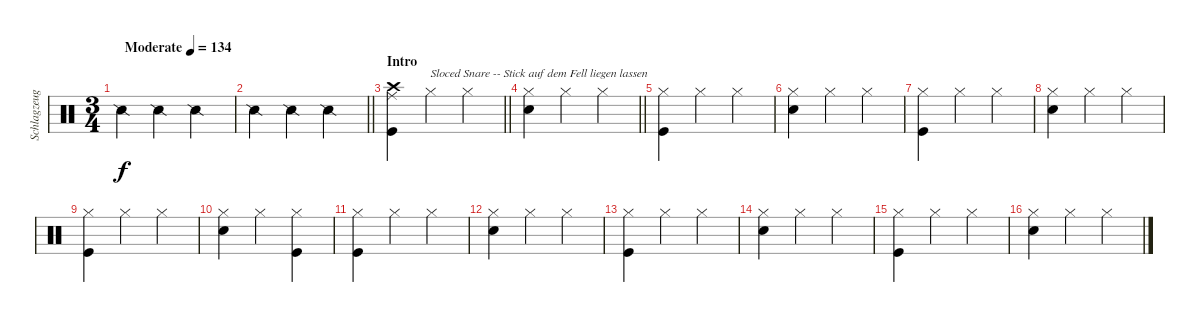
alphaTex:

\track ("Schlagzeug" "Schlagzeug") {instrument percussion}
\staff {score}
\articulation defaults
\ts (3 4)
\tempo (134 "Moderate")
\clef neutral
\ks c "Snare (side stick) 2".4{dy f} "Snare (side stick) 2".4 "Snare (side stick) 2".4
|
\barLineRight lightlight "Snare (side stick) 2".4 "Snare (side stick) 2".4 "Snare (side stick) 2".4
|
\section ("" "Intro")
\barLineRight lightlight
("Crash high (hit)" "Ride (middle)" "Kick (hit)").4 "Hi-Hat (closed)".4{txt "Sloced Snare -- Stick auf dem Fell liegen lassen"} "Hi-Hat (closed)".4 |
\section ("" "")
\barLineRight lightlight
("Hi-Hat (closed)" "Snare (hit) 2").4 "Hi-Hat (closed)".4 "Hi-Hat (closed)".4 |
\section ("" "")
("Hi-Hat (closed)" "Kick (hit)").4 "Hi-Hat (closed)".4 "Hi-Hat (closed)".4 |
("Hi-Hat (closed)" "Snare (hit) 2").4 "Hi-Hat (closed)".4 "Hi-Hat (closed)".4 |
("Hi-Hat (closed)" "Kick (hit)").4 "Hi-Hat (closed)".4 "Hi-Hat (closed)".4 |
("Hi-Hat (closed)" "Snare (hit) 2").4 "Hi-Hat (closed)".4 "Hi-Hat (closed)".4 |
("Hi-Hat (closed)" "Kick (hit)").4 "Hi-Hat (closed)".4 "Hi-Hat (closed)".4 |
("Hi-Hat (closed)" "Snare (hit) 2").4 "Hi-Hat (closed)".4 ("Hi-Hat (closed)" "Kick (hit)").4 |
("Hi-Hat (closed)" "Kick (hit)").4 "Hi-Hat (closed)".4 "Hi-Hat (closed)".4 |
("Hi-Hat (closed)" "Snare (hit) 2").4 "Hi-Hat (closed)".4 "Hi-Hat (closed)".4 |
("Hi-Hat (closed)" "Kick (hit)").4 "Hi-Hat (closed)".4 "Hi-Hat (closed)".4 |
("Hi-Hat (closed)" "Snare (hit) 2").4 "Hi-Hat (closed)".4 "Hi-Hat (closed)".4 |
("Hi-Hat (closed)" "Kick (hit)").4 "Hi-Hat (closed)".4 "Hi-Hat (closed)".4 |
("Hi-Hat (closed)" "Snare (hit) 2").4 "Hi-Hat (closed)".4 "Hi-Hat (closed)".4
